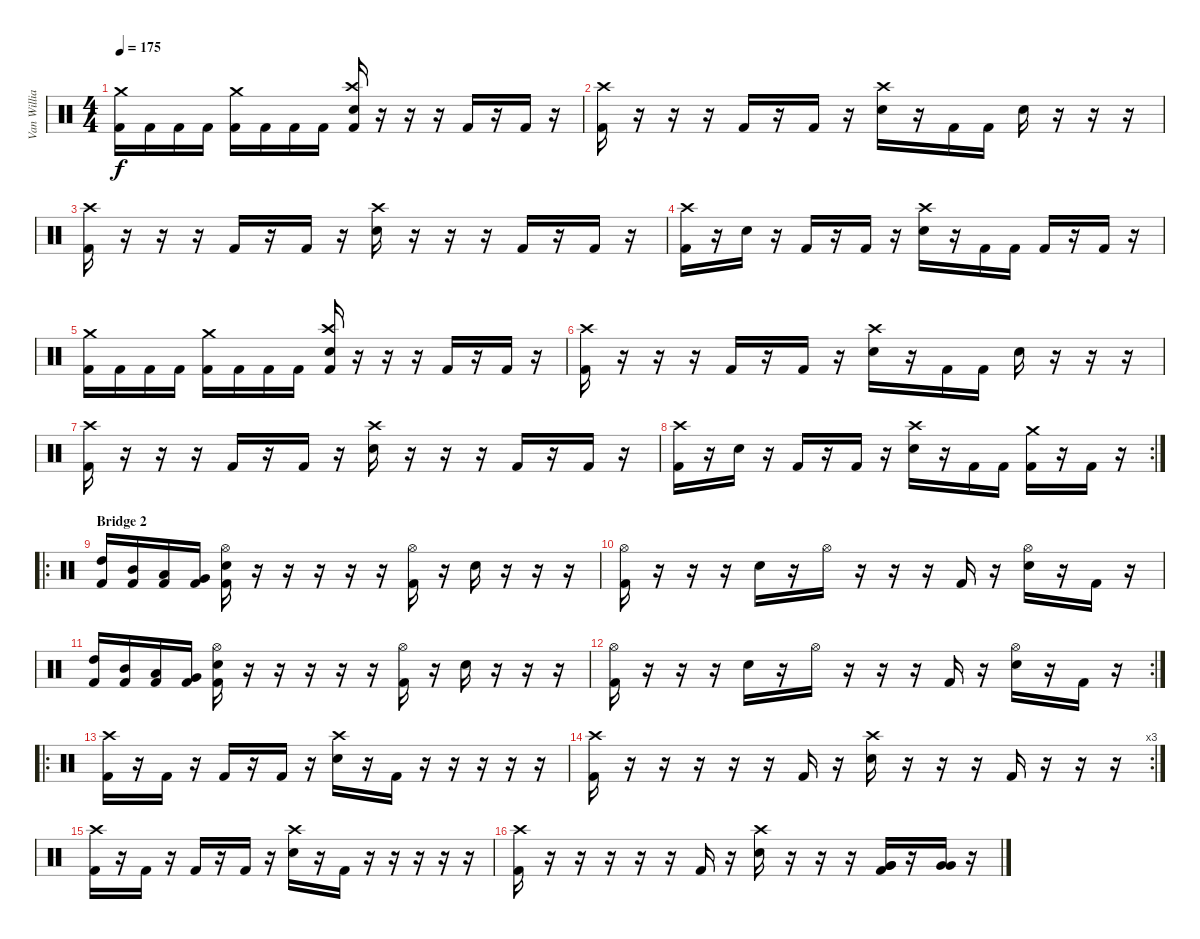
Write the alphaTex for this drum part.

\track ("Van Williams" "Van Willia") {instrument percussion}
\staff {score}
\articulation defaults
\ts (4 4)
\tempo 175
\clef neutral
\ks c
("Crash medium (hit)" "Kick (hit) 2").16{dy f} "Kick (hit) 2".16 "Kick (hit) 2".16 "Kick (hit) 2".16 ("Crash medium (hit)" "Kick (hit) 2").16 "Kick (hit) 2".16 "Kick (hit) 2".16 "Kick (hit) 2".16 ("Crash high (hit)" "Kick (hit) 2" "Electric Snare (hit)").16 r.16 r.16 r.16 "Kick (hit) 2".16 r.16 "Kick (hit) 2".16 r.16 |
("Crash high (hit)" "Kick (hit) 2").16 r.16 r.16 r.16 "Kick (hit) 2".16 r.16 "Kick (hit) 2".16 r.16 ("Crash high (hit)" "Electric Snare (hit)").16 r.16 "Kick (hit) 2".16 "Kick (hit) 2".16 "Electric Snare (hit)".16 r.16 r.16 r.16 |
("Crash high (hit)" "Kick (hit) 2").16 r.16 r.16 r.16 "Kick (hit) 2".16 r.16 "Kick (hit) 2".16 r.16 ("Crash high (hit)" "Electric Snare (hit)").16 r.16 r.16 r.16 "Kick (hit) 2".16 r.16 "Kick (hit) 2".16 r.16 |
("Crash high (hit)" "Kick (hit) 2").16 r.16 "Electric Snare (hit)".16 r.16 "Kick (hit) 2".16 r.16 "Kick (hit) 2".16 r.16 ("Crash high (hit)" "Electric Snare (hit)").16 r.16 "Kick (hit) 2".16 "Kick (hit) 2".16 "Kick (hit) 2".16 r.16 "Kick (hit) 2".16 r.16 |
("Crash medium (hit)" "Kick (hit) 2").16 "Kick (hit) 2".16 "Kick (hit) 2".16 "Kick (hit) 2".16 ("Crash medium (hit)" "Kick (hit) 2").16 "Kick (hit) 2".16 "Kick (hit) 2".16 "Kick (hit) 2".16 ("Crash high (hit)" "Kick (hit) 2" "Electric Snare (hit)").16 r.16 r.16 r.16 "Kick (hit) 2".16 r.16 "Kick (hit) 2".16 r.16 |
("Crash high (hit)" "Kick (hit) 2").16 r.16 r.16 r.16 "Kick (hit) 2".16 r.16 "Kick (hit) 2".16 r.16 ("Crash high (hit)" "Electric Snare (hit)").16 r.16 "Kick (hit) 2".16 "Kick (hit) 2".16 "Electric Snare (hit)".16 r.16 r.16 r.16 |
("Crash high (hit)" "Kick (hit) 2").16 r.16 r.16 r.16 "Kick (hit) 2".16 r.16 "Kick (hit) 2".16 r.16 ("Crash high (hit)" "Electric Snare (hit)").16 r.16 r.16 r.16 "Kick (hit) 2".16 r.16 "Kick (hit) 2".16 r.16 |
\rc 2
("Crash high (hit)" "Kick (hit) 2").16 r.16 "Electric Snare (hit)".16 r.16 "Kick (hit) 2".16 r.16 "Kick (hit) 2".16 r.16 ("Crash high (hit)" "Electric Snare (hit)").16 r.16 "Kick (hit) 2".16 "Kick (hit) 2".16 ("Crash medium (hit)" "Kick (hit) 2").16 r.16 "Kick (hit) 2".16 r.16 |
\ro
\section ("" "Bridge 2")
("Kick (hit) 2" "High Tom (hit)").16 ("Kick (hit) 2" "Mid Tom (hit)").16 ("Kick (hit) 2" "Low Tom (hit)").16 ("Kick (hit) 2" "Very Low Tom (hit)").16 ("Hi-Hat (open)" "Kick (hit) 2" "Electric Snare (hit)").16 r.16 r.16 r.16 r.16 r.16 ("Hi-Hat (open)" "Kick (hit) 2").16 r.16 "Electric Snare (hit)".16 r.16 r.16 r.16 |
("Hi-Hat (open)" "Kick (hit) 2").16 r.16 r.16 r.16 "Electric Snare (hit)".16 r.16 "Hi-Hat (open)".16 r.16 r.16 r.16 "Kick (hit) 2".16 r.16 ("Hi-Hat (open)" "Electric Snare (hit)").16 r.16 "Kick (hit) 2".16 r.16 |
("Kick (hit) 2" "High Tom (hit)").16 ("Kick (hit) 2" "Mid Tom (hit)").16 ("Kick (hit) 2" "Low Tom (hit)").16 ("Kick (hit) 2" "Very Low Tom (hit)").16 ("Hi-Hat (open)" "Kick (hit) 2" "Electric Snare (hit)").16 r.16 r.16 r.16 r.16 r.16 ("Hi-Hat (open)" "Kick (hit) 2").16 r.16 "Electric Snare (hit)".16 r.16 r.16 r.16 |
\rc 2
("Hi-Hat (open)" "Kick (hit) 2").16 r.16 r.16 r.16 "Electric Snare (hit)".16 r.16 "Hi-Hat (open)".16 r.16 r.16 r.16 "Kick (hit) 2".16 r.16 ("Hi-Hat (open)" "Electric Snare (hit)").16 r.16 "Kick (hit) 2".16 r.16 |
\ro
("Crash high (hit)" "Kick (hit) 2").16 r.16 "Kick (hit) 2".16 r.16 "Kick (hit) 2".16 r.16 "Kick (hit) 2".16 r.16 ("Crash high (hit)" "Electric Snare (hit)").16 r.16 "Kick (hit) 2".16 r.16 r.16 r.16 r.16 r.16 |
\rc 3
("Crash high (hit)" "Kick (hit) 2").16 r.16 r.16 r.16 r.16 r.16 "Kick (hit) 2".16 r.16 ("Crash high (hit)" "Electric Snare (hit)").16 r.16 r.16 r.16 "Kick (hit) 2".16 r.16 r.16 r.16 |
("Crash high (hit)" "Kick (hit) 2").16 r.16 "Kick (hit) 2".16 r.16 "Kick (hit) 2".16 r.16 "Kick (hit) 2".16 r.16 ("Crash high (hit)" "Electric Snare (hit)").16 r.16 "Kick (hit) 2".16 r.16 r.16 r.16 r.16 r.16 |
("Crash high (hit)" "Kick (hit) 2").16 r.16 r.16 r.16 r.16 r.16 "Kick (hit) 2".16 r.16 ("Crash high (hit)" "Electric Snare (hit)").16 r.16 r.16 r.16 ("Kick (hit) 2" "Very Low Tom (hit)" "Very Low Tom (hit)").16 r.16 ("Very Low Tom (hit)" "Very Low Tom (hit)").16 r.16
